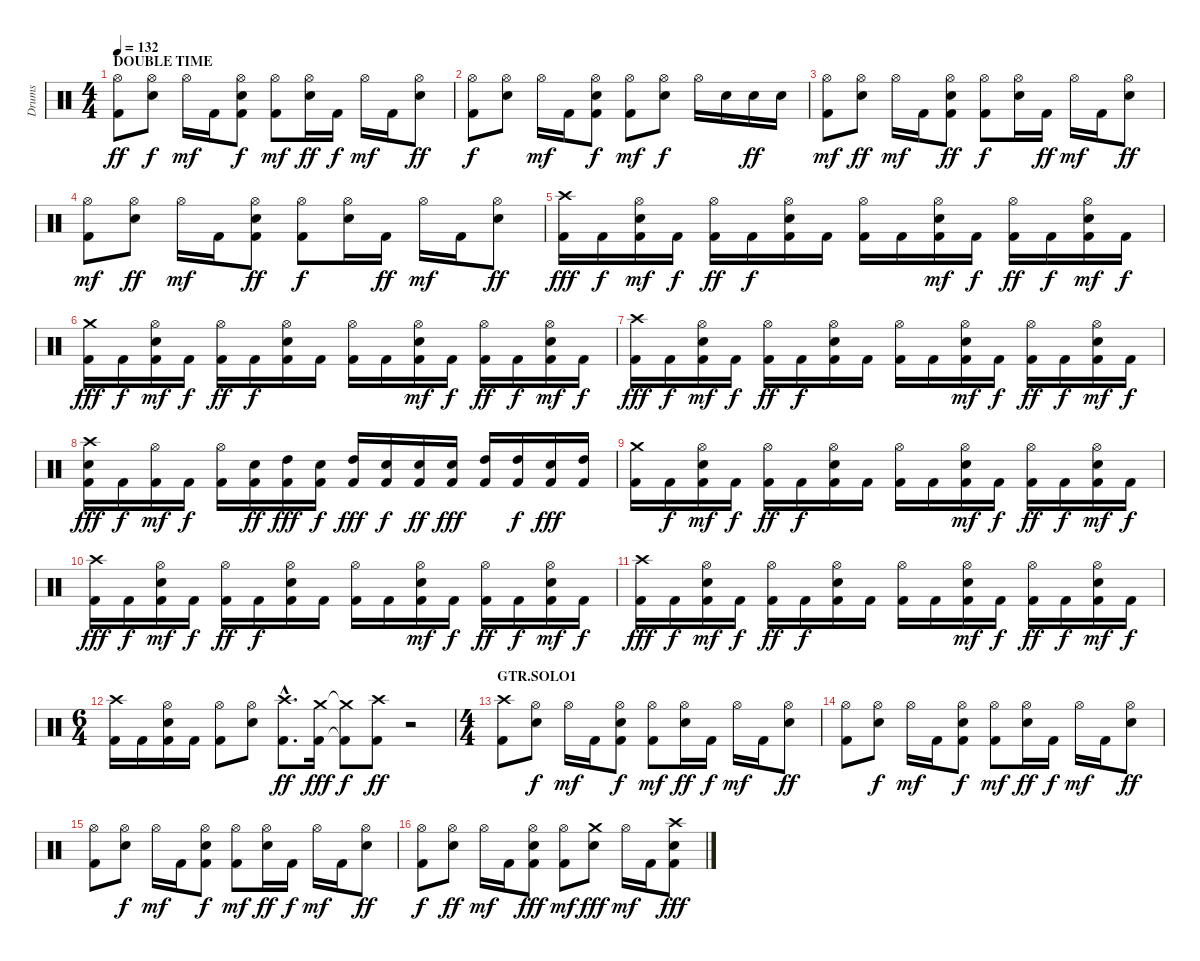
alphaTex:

\track ("Drums" "Drums") {instrument percussion}
\staff {score}
\articulation defaults
\ts (4 4)
\section ("" "DOUBLE TIME")
\tempo 132
\clef neutral
\ks c
("Hi-Hat (open)" "Kick (hit) 2").8{dy ff} ("Hi-Hat (open)" "Electric Snare (hit)").8{dy f} "Hi-Hat (open)".16{dy mf} "Kick (hit) 2".16 ("Hi-Hat (open)" "Electric Snare (hit)" "Kick (hit) 2").8{dy f} ("Hi-Hat (open)" "Kick (hit) 2").8{dy mf} ("Hi-Hat (open)" "Electric Snare (hit)").16{dy ff} "Kick (hit) 2".16{dy f} "Hi-Hat (open)".16{dy mf} "Kick (hit) 2".16 ("Hi-Hat (open)" "Electric Snare (hit)").8{dy ff} |
("Hi-Hat (open)" "Kick (hit) 2").8{dy f} ("Hi-Hat (open)" "Electric Snare (hit)").8 "Hi-Hat (open)".16{dy mf} "Kick (hit) 2".16 ("Hi-Hat (open)" "Electric Snare (hit)" "Kick (hit) 2").8{dy f} ("Hi-Hat (open)" "Kick (hit) 2").8{dy mf} ("Hi-Hat (open)" "Electric Snare (hit)").8{dy f} "Hi-Hat (open)".16 "Electric Snare (hit)".16 "Electric Snare (hit)".16{dy ff} "Electric Snare (hit)".16 |
("Hi-Hat (open)" "Kick (hit) 2").8{dy mf} ("Hi-Hat (open)" "Electric Snare (hit)").8{dy ff} "Hi-Hat (open)".16{dy mf} "Kick (hit) 2".16 ("Hi-Hat (open)" "Electric Snare (hit)" "Kick (hit) 2").8{dy ff} ("Hi-Hat (open)" "Kick (hit) 2").8{dy f} ("Hi-Hat (open)" "Electric Snare (hit)").16 "Kick (hit) 2".16{dy ff} "Hi-Hat (open)".16{dy mf} "Kick (hit) 2".16 ("Hi-Hat (open)" "Electric Snare (hit)").8{dy ff} |
("Hi-Hat (open)" "Kick (hit) 2").8{dy mf} ("Hi-Hat (open)" "Electric Snare (hit)").8{dy ff} "Hi-Hat (open)".16{dy mf} "Kick (hit) 2".16 ("Hi-Hat (open)" "Electric Snare (hit)" "Kick (hit) 2").8{dy ff} ("Hi-Hat (open)" "Kick (hit) 2").8{dy f} ("Hi-Hat (open)" "Electric Snare (hit)").16 "Kick (hit) 2".16{dy ff} "Hi-Hat (open)".16{dy mf} "Kick (hit) 2".16 ("Hi-Hat (open)" "Electric Snare (hit)").8{dy ff} |
("Crash high (hit)" "Kick (hit) 2").16{dy fff} "Kick (hit) 2".16{dy f} ("Hi-Hat (open)" "Electric Snare (hit)" "Kick (hit) 2").16{dy mf} "Kick (hit) 2".16{dy f} ("Hi-Hat (open)" "Kick (hit) 2").16{dy ff} "Kick (hit) 2".16{dy f} ("Hi-Hat (open)" "Electric Snare (hit)" "Kick (hit) 2").16 "Kick (hit) 2".16 ("Hi-Hat (open)" "Kick (hit) 2").16 "Kick (hit) 2".16 ("Hi-Hat (open)" "Electric Snare (hit)" "Kick (hit) 2").16{dy mf} "Kick (hit) 2".16{dy f} ("Hi-Hat (open)" "Kick (hit) 2").16{dy ff} "Kick (hit) 2".16{dy f} ("Hi-Hat (open)" "Electric Snare (hit)" "Kick (hit) 2").16{dy mf} "Kick (hit) 2".16{dy f} |
("Crash medium (hit)" "Kick (hit) 2").16{dy fff} "Kick (hit) 2".16{dy f} ("Hi-Hat (open)" "Electric Snare (hit)" "Kick (hit) 2").16{dy mf} "Kick (hit) 2".16{dy f} ("Hi-Hat (open)" "Kick (hit) 2").16{dy ff} "Kick (hit) 2".16{dy f} ("Hi-Hat (open)" "Electric Snare (hit)" "Kick (hit) 2").16 "Kick (hit) 2".16 ("Hi-Hat (open)" "Kick (hit) 2").16 "Kick (hit) 2".16 ("Hi-Hat (open)" "Electric Snare (hit)" "Kick (hit) 2").16{dy mf} "Kick (hit) 2".16{dy f} ("Hi-Hat (open)" "Kick (hit) 2").16{dy ff} "Kick (hit) 2".16{dy f} ("Hi-Hat (open)" "Electric Snare (hit)" "Kick (hit) 2").16{dy mf} "Kick (hit) 2".16{dy f} |
("Crash high (hit)" "Kick (hit) 2").16{dy fff} "Kick (hit) 2".16{dy f} ("Hi-Hat (open)" "Electric Snare (hit)" "Kick (hit) 2").16{dy mf} "Kick (hit) 2".16{dy f} ("Hi-Hat (open)" "Kick (hit) 2").16{dy ff} "Kick (hit) 2".16{dy f} ("Hi-Hat (open)" "Electric Snare (hit)" "Kick (hit) 2").16 "Kick (hit) 2".16 ("Hi-Hat (open)" "Kick (hit) 2").16 "Kick (hit) 2".16 ("Hi-Hat (open)" "Electric Snare (hit)" "Kick (hit) 2").16{dy mf} "Kick (hit) 2".16{dy f} ("Hi-Hat (open)" "Kick (hit) 2").16{dy ff} "Kick (hit) 2".16{dy f} ("Hi-Hat (open)" "Electric Snare (hit)" "Kick (hit) 2").16{dy mf} "Kick (hit) 2".16{dy f} |
("Crash high (hit)" "Electric Snare (hit)" "Kick (hit) 2").16{dy fff} "Kick (hit) 2".16{dy f} ("Hi-Hat (open)" "Kick (hit) 2").16{dy mf} "Kick (hit) 2".16{dy f} ("Hi-Hat (open)" "Kick (hit) 2").16 ("Electric Snare (hit)" "Kick (hit) 2").16{dy ff} ("High Tom (hit)" "Kick (hit) 2").16{dy fff} ("Electric Snare (hit)" "Kick (hit) 2").16{dy f} ("High Tom (hit)" "Kick (hit) 2").16{dy fff} ("Electric Snare (hit)" "Kick (hit) 2").16{dy f} ("Electric Snare (hit)" "Kick (hit) 2").16{dy ff} ("Electric Snare (hit)" "Kick (hit) 2").16{dy fff} ("High Tom (hit)" "Kick (hit) 2").16 ("High Tom (hit)" "Kick (hit) 2").16{dy f} ("Electric Snare (hit)" "Kick (hit) 2").16{dy fff} ("High Tom (hit)" "Kick (hit) 2").16 |
("Crash medium (hit)" "Kick (hit) 2").16 "Kick (hit) 2".16{dy f} ("Hi-Hat (open)" "Electric Snare (hit)" "Kick (hit) 2").16{dy mf} "Kick (hit) 2".16{dy f} ("Hi-Hat (open)" "Kick (hit) 2").16{dy ff} "Kick (hit) 2".16{dy f} ("Hi-Hat (open)" "Electric Snare (hit)" "Kick (hit) 2").16 "Kick (hit) 2".16 ("Hi-Hat (open)" "Kick (hit) 2").16 "Kick (hit) 2".16 ("Hi-Hat (open)" "Electric Snare (hit)" "Kick (hit) 2").16{dy mf} "Kick (hit) 2".16{dy f} ("Hi-Hat (open)" "Kick (hit) 2").16{dy ff} "Kick (hit) 2".16{dy f} ("Hi-Hat (open)" "Electric Snare (hit)" "Kick (hit) 2").16{dy mf} "Kick (hit) 2".16{dy f} |
("Crash high (hit)" "Kick (hit) 2").16{dy fff} "Kick (hit) 2".16{dy f} ("Hi-Hat (open)" "Electric Snare (hit)" "Kick (hit) 2").16{dy mf} "Kick (hit) 2".16{dy f} ("Hi-Hat (open)" "Kick (hit) 2").16{dy ff} "Kick (hit) 2".16{dy f} ("Hi-Hat (open)" "Electric Snare (hit)" "Kick (hit) 2").16 "Kick (hit) 2".16 ("Hi-Hat (open)" "Kick (hit) 2").16 "Kick (hit) 2".16 ("Hi-Hat (open)" "Electric Snare (hit)" "Kick (hit) 2").16{dy mf} "Kick (hit) 2".16{dy f} ("Hi-Hat (open)" "Kick (hit) 2").16{dy ff} "Kick (hit) 2".16{dy f} ("Hi-Hat (open)" "Electric Snare (hit)" "Kick (hit) 2").16{dy mf} "Kick (hit) 2".16{dy f} |
("Crash high (hit)" "Kick (hit) 2").16{dy fff} "Kick (hit) 2".16{dy f} ("Hi-Hat (open)" "Electric Snare (hit)" "Kick (hit) 2").16{dy mf} "Kick (hit) 2".16{dy f} ("Hi-Hat (open)" "Kick (hit) 2").16{dy ff} "Kick (hit) 2".16{dy f} ("Hi-Hat (open)" "Electric Snare (hit)" "Kick (hit) 2").16 "Kick (hit) 2".16 ("Hi-Hat (open)" "Kick (hit) 2").16 "Kick (hit) 2".16 ("Hi-Hat (open)" "Electric Snare (hit)" "Kick (hit) 2").16{dy mf} "Kick (hit) 2".16{dy f} ("Hi-Hat (open)" "Kick (hit) 2").16{dy ff} "Kick (hit) 2".16{dy f} ("Hi-Hat (open)" "Electric Snare (hit)" "Kick (hit) 2").16{dy mf} "Kick (hit) 2".16{dy f} |
\ts (6 4)
("Crash high (hit)" "Kick (hit) 2").16 "Kick (hit) 2".16 ("Hi-Hat (open)" "Electric Snare (hit)" "Kick (hit) 2").16 "Kick (hit) 2".16 ("Hi-Hat (open)" "Kick (hit) 2").8 ("Hi-Hat (open)" "Electric Snare (hit)").8 ("Crash high (hit)"{hac} "Kick (hit) 2"{hac}).8{d dy ff} ("Crash medium (hit)" "Kick (hit) 2").16{dy fff} ("Crash medium (hit)"{t} "Kick (hit) 2"{t}).8{dy f} ("Crash high (hit)" "Kick (hit) 2").8{dy ff} r.2{volume 0} |
\ts (4 4)
\section ("" "GTR.SOLO1")
("Crash high (hit)" "Kick (hit) 2").8{volume 14} ("Hi-Hat (open)" "Electric Snare (hit)").8{dy f} "Hi-Hat (open)".16{dy mf} "Kick (hit) 2".16 ("Hi-Hat (open)" "Electric Snare (hit)" "Kick (hit) 2").8{dy f} ("Hi-Hat (open)" "Kick (hit) 2").8{dy mf} ("Hi-Hat (open)" "Electric Snare (hit)").16{dy ff} "Kick (hit) 2".16{dy f} "Hi-Hat (open)".16{dy mf} "Kick (hit) 2".16 ("Hi-Hat (open)" "Electric Snare (hit)").8{dy ff} |
("Hi-Hat (open)" "Kick (hit) 2").8 ("Hi-Hat (open)" "Electric Snare (hit)").8{dy f} "Hi-Hat (open)".16{dy mf} "Kick (hit) 2".16 ("Hi-Hat (open)" "Electric Snare (hit)" "Kick (hit) 2").8{dy f} ("Hi-Hat (open)" "Kick (hit) 2").8{dy mf} ("Hi-Hat (open)" "Electric Snare (hit)").16{dy ff} "Kick (hit) 2".16{dy f} "Hi-Hat (open)".16{dy mf} "Kick (hit) 2".16 ("Hi-Hat (open)" "Electric Snare (hit)").8{dy ff} |
("Hi-Hat (open)" "Kick (hit) 2").8 ("Hi-Hat (open)" "Electric Snare (hit)").8{dy f} "Hi-Hat (open)".16{dy mf} "Kick (hit) 2".16 ("Hi-Hat (open)" "Electric Snare (hit)" "Kick (hit) 2").8{dy f} ("Hi-Hat (open)" "Kick (hit) 2").8{dy mf} ("Hi-Hat (open)" "Electric Snare (hit)").16{dy ff} "Kick (hit) 2".16{dy f} "Hi-Hat (open)".16{dy mf} "Kick (hit) 2".16 ("Hi-Hat (open)" "Electric Snare (hit)").8{dy ff} |
("Hi-Hat (open)" "Kick (hit) 2").8{dy f} ("Hi-Hat (open)" "Electric Snare (hit)").8{dy ff} "Hi-Hat (open)".16{dy mf} "Kick (hit) 2".16 ("Hi-Hat (open)" "Electric Snare (hit)" "Kick (hit) 2").8{dy fff} ("Hi-Hat (open)" "Kick (hit) 2").8{dy mf} ("Crash medium (hit)" "Electric Snare (hit)").8{dy fff} "Hi-Hat (open)".16{dy mf} "Kick (hit) 2".16 ("Crash high (hit)" "Electric Snare (hit)" "Kick (hit) 2").8{dy fff}
